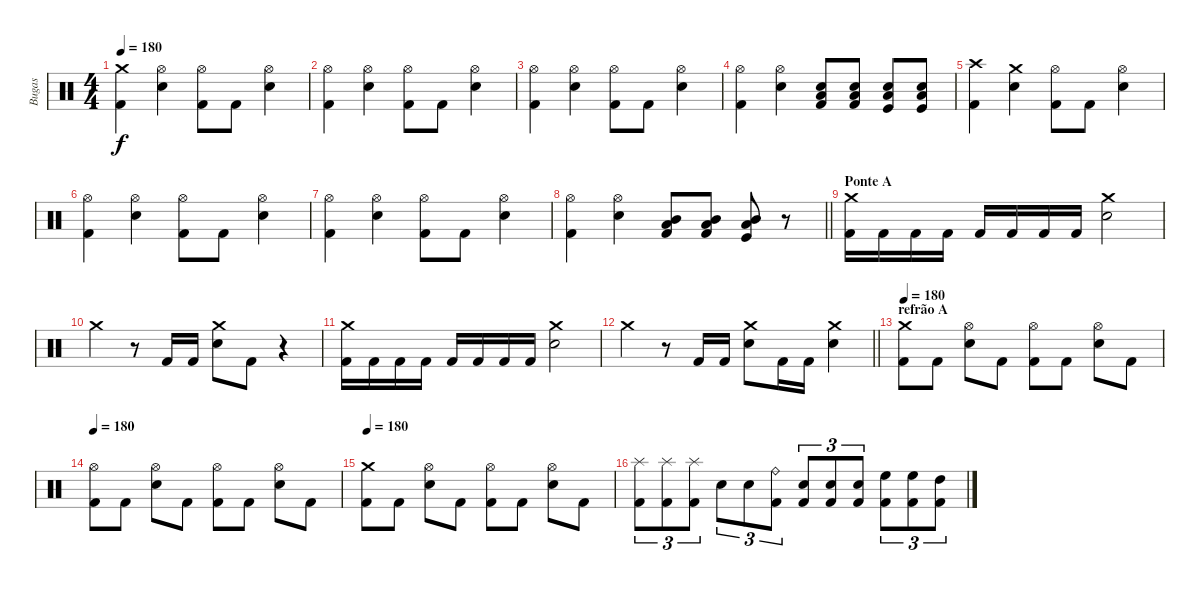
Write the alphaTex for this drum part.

\track ("Bugas" "Bugas") {instrument percussion}
\staff {score}
\articulation defaults
\ts (4 4)
\tempo 180
\clef neutral
\ks c
("Crash medium (hit)" "Kick (hit) 2").4{dy f} ("Hi-Hat (open)" "Electric Snare (hit)").4 ("Hi-Hat (open)" "Kick (hit) 2").8 "Kick (hit) 2".8 ("Hi-Hat (open)" "Electric Snare (hit)").4 |
("Hi-Hat (open)" "Kick (hit) 2").4 ("Hi-Hat (open)" "Electric Snare (hit)").4 ("Hi-Hat (open)" "Kick (hit) 2").8 "Kick (hit) 2".8 ("Hi-Hat (open)" "Electric Snare (hit)").4 |
("Hi-Hat (open)" "Kick (hit) 2").4 ("Hi-Hat (open)" "Electric Snare (hit)").4 ("Hi-Hat (open)" "Kick (hit) 2").8 "Kick (hit) 2".8 ("Hi-Hat (open)" "Electric Snare (hit)").4 |
("Hi-Hat (open)" "Kick (hit) 2").4 ("Hi-Hat (open)" "Electric Snare (hit)").4 ("Electric Snare (hit)" "Low Tom (hit)" "Kick (hit) 2").8 ("Electric Snare (hit)" "Low Tom (hit)" "Kick (hit) 2").8 ("Electric Snare (hit)" "Low Tom (hit)" "Kick (hit)").8 ("Electric Snare (hit)" "Low Tom (hit)" "Kick (hit)").8 |
("Crash high (hit)" "Kick (hit) 2").4 ("Crash medium (hit)" "Electric Snare (hit)").4 ("Hi-Hat (open)" "Kick (hit) 2").8 "Kick (hit) 2".8 ("Hi-Hat (open)" "Electric Snare (hit)").4 |
("Hi-Hat (open)" "Kick (hit) 2").4 ("Hi-Hat (open)" "Electric Snare (hit)").4 ("Hi-Hat (open)" "Kick (hit) 2").8 "Kick (hit) 2".8 ("Hi-Hat (open)" "Electric Snare (hit)").4 |
("Hi-Hat (open)" "Kick (hit) 2").4 ("Hi-Hat (open)" "Electric Snare (hit)").4 ("Hi-Hat (open)" "Kick (hit) 2").8 "Kick (hit) 2".8 ("Hi-Hat (open)" "Electric Snare (hit)").4 |
\barLineRight lightlight
("Hi-Hat (open)" "Kick (hit) 2").4 ("Hi-Hat (open)" "Electric Snare (hit)").4 ("Mid Tom (hit)" "Low Tom (hit)" "Kick (hit) 2").8 ("Mid Tom (hit)" "Low Tom (hit)" "Kick (hit) 2").8 ("Mid Tom (hit)" "Low Tom (hit)" "Kick (hit)").8 r.8 |
\section ("" "Ponte A")
("Crash medium (hit)" "Kick (hit) 2").16 "Kick (hit) 2".16 "Kick (hit) 2".16 "Kick (hit) 2".16 "Kick (hit) 2".16 "Kick (hit) 2".16 "Kick (hit) 2".16 "Kick (hit) 2".16 ("Crash medium (hit)" "Electric Snare (hit)").2 |
"Crash medium (hit)".4 r.8 "Kick (hit) 2".16 "Kick (hit) 2".16 ("Crash medium (hit)" "Electric Snare (hit)").8 "Kick (hit) 2".8 r.4 |
("Crash medium (hit)" "Kick (hit) 2").16 "Kick (hit) 2".16 "Kick (hit) 2".16 "Kick (hit) 2".16 "Kick (hit) 2".16 "Kick (hit) 2".16 "Kick (hit) 2".16 "Kick (hit) 2".16 ("Crash medium (hit)" "Electric Snare (hit)").2 |
\barLineRight lightlight "Crash medium (hit)".4
r.8 "Kick (hit) 2".16 "Kick (hit) 2".16 ("Crash medium (hit)" "Electric Snare (hit)").8 "Kick (hit) 2".16 "Kick (hit) 2".16 ("Crash medium (hit)" "Electric Snare (hit)").4 |
\section ("" "refrão A")
\tempo 180
("Crash medium (hit)" "Kick (hit) 2").8 "Kick (hit) 2".8 ("Hi-Hat (open)" "Electric Snare (hit)").8 "Kick (hit) 2".8 ("Hi-Hat (open)" "Kick (hit) 2").8 "Kick (hit) 2".8 ("Hi-Hat (open)" "Electric Snare (hit)").8 "Kick (hit) 2".8 |
\tempo 180
("Hi-Hat (open)" "Kick (hit) 2").8 "Kick (hit) 2".8 ("Hi-Hat (open)" "Electric Snare (hit)").8 "Kick (hit) 2".8 ("Hi-Hat (open)" "Kick (hit) 2").8 "Kick (hit) 2".8 ("Hi-Hat (open)" "Electric Snare (hit)").8 "Kick (hit) 2".8 |
\tempo 180
("Crash medium (hit)" "Kick (hit) 2").8 "Kick (hit) 2".8 ("Hi-Hat (open)" "Electric Snare (hit)").8 "Kick (hit) 2".8 ("Hi-Hat (open)" "Kick (hit) 2").8 "Kick (hit) 2".8 ("Hi-Hat (open)" "Electric Snare (hit)").8 "Kick (hit) 2".8 |
("Splash (hit)" "Kick (hit) 2").8{tu (3 2)} ("Splash (hit)" "Kick (hit) 2").8{tu (3 2)} ("Splash (hit)" "Kick (hit) 2").8{tu (3 2)} "Electric Snare (hit)".8{tu (3 2)} "Electric Snare (hit)".8{tu (3 2)} ("Ride (bell)" "Kick (hit) 2").8{tu (3 2)} ("Electric Snare (hit)" "Kick (hit) 2").8{tu (3 2)} ("Electric Snare (hit)" "Kick (hit) 2").8{tu (3 2)} ("Electric Snare (hit)" "Kick (hit) 2").8{tu (3 2)} ("High Floor Tom (hit)" "Kick (hit) 2").8{tu (3 2)} ("High Floor Tom (hit)" "Kick (hit) 2").8{tu (3 2)} ("High Tom (hit)" "Kick (hit) 2").8{tu (3 2)}
